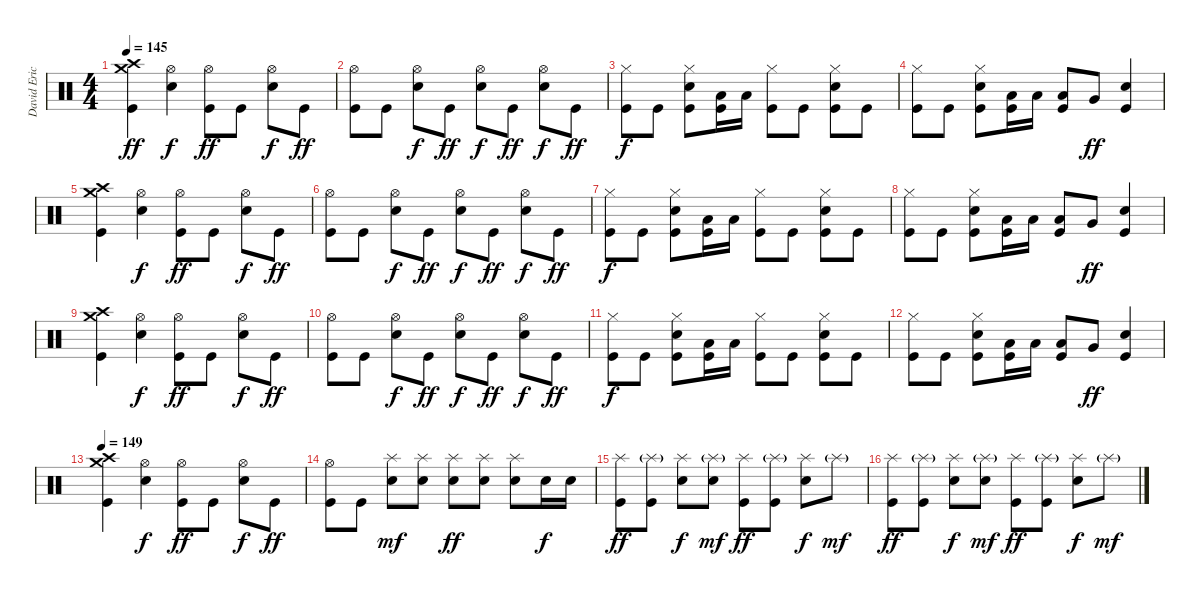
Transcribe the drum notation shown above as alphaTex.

\track ("David Eric Grohl" "David Eric") {instrument percussion}
\staff {score}
\articulation defaults
\ts (4 4)
\tempo 145
\clef neutral
\ks c
("Crash medium (hit)" "Crash high (hit)" "Kick (hit)").4{dy ff} ("Hi-Hat (open)" "Snare (hit) 2").4{dy f} ("Hi-Hat (open)" "Kick (hit)").8{dy ff} "Kick (hit)".8 ("Hi-Hat (open)" "Snare (hit) 2").8{dy f} "Kick (hit)".8{dy ff} |
("Hi-Hat (open)" "Kick (hit)").8 "Kick (hit)".8 ("Hi-Hat (open)" "Snare (hit) 2").8{dy f} "Kick (hit)".8{dy ff} ("Hi-Hat (open)" "Snare (hit) 2").8{dy f} "Kick (hit)".8{dy ff} ("Hi-Hat (open)" "Snare (hit) 2").8{dy f} "Kick (hit)".8{dy ff} |
("Hi-Hat (closed)" "Kick (hit)").8{dy f} "Kick (hit)".8 ("Snare (hit) 2" "Hi-Hat (closed)" "Kick (hit)").8 ("Low Tom (hit)" "Kick (hit)").16 "Low Tom (hit)".16 ("Hi-Hat (closed)" "Kick (hit)").8 "Kick (hit)".8 ("Snare (hit) 2" "Hi-Hat (closed)" "Kick (hit)").8 "Kick (hit)".8 |
("Hi-Hat (closed)" "Kick (hit)").8 "Kick (hit)".8 ("Snare (hit) 2" "Hi-Hat (closed)" "Kick (hit)").8 ("Low Tom (hit)" "Kick (hit)").16 "Low Tom (hit)".16 ("Low Tom (hit)" "Kick (hit)").8 "Very Low Tom (hit)".8{dy ff} ("Snare (hit) 2" "Kick (hit)").4 |
("Crash medium (hit)" "Crash high (hit)" "Kick (hit)").4 ("Hi-Hat (open)" "Snare (hit) 2").4{dy f} ("Hi-Hat (open)" "Kick (hit)").8{dy ff} "Kick (hit)".8 ("Hi-Hat (open)" "Snare (hit) 2").8{dy f} "Kick (hit)".8{dy ff} |
("Hi-Hat (open)" "Kick (hit)").8 "Kick (hit)".8 ("Hi-Hat (open)" "Snare (hit) 2").8{dy f} "Kick (hit)".8{dy ff} ("Hi-Hat (open)" "Snare (hit) 2").8{dy f} "Kick (hit)".8{dy ff} ("Hi-Hat (open)" "Snare (hit) 2").8{dy f} "Kick (hit)".8{dy ff} |
("Hi-Hat (closed)" "Kick (hit)").8{dy f} "Kick (hit)".8 ("Snare (hit) 2" "Hi-Hat (closed)" "Kick (hit)").8 ("Low Tom (hit)" "Kick (hit)").16 "Low Tom (hit)".16 ("Hi-Hat (closed)" "Kick (hit)").8 "Kick (hit)".8 ("Snare (hit) 2" "Hi-Hat (closed)" "Kick (hit)").8 "Kick (hit)".8 |
("Hi-Hat (closed)" "Kick (hit)").8 "Kick (hit)".8 ("Snare (hit) 2" "Hi-Hat (closed)" "Kick (hit)").8 ("Low Tom (hit)" "Kick (hit)").16 "Low Tom (hit)".16 ("Low Tom (hit)" "Kick (hit)").8 "Very Low Tom (hit)".8{dy ff} ("Snare (hit) 2" "Kick (hit)").4 |
("Crash medium (hit)" "Crash high (hit)" "Kick (hit)").4 ("Hi-Hat (open)" "Snare (hit) 2").4{dy f} ("Hi-Hat (open)" "Kick (hit)").8{dy ff} "Kick (hit)".8 ("Hi-Hat (open)" "Snare (hit) 2").8{dy f} "Kick (hit)".8{dy ff} |
("Hi-Hat (open)" "Kick (hit)").8 "Kick (hit)".8 ("Hi-Hat (open)" "Snare (hit) 2").8{dy f} "Kick (hit)".8{dy ff} ("Hi-Hat (open)" "Snare (hit) 2").8{dy f} "Kick (hit)".8{dy ff} ("Hi-Hat (open)" "Snare (hit) 2").8{dy f} "Kick (hit)".8{dy ff} |
("Hi-Hat (closed)" "Kick (hit)").8{dy f} "Kick (hit)".8 ("Snare (hit) 2" "Hi-Hat (closed)" "Kick (hit)").8 ("Low Tom (hit)" "Kick (hit)").16 "Low Tom (hit)".16 ("Hi-Hat (closed)" "Kick (hit)").8 "Kick (hit)".8 ("Snare (hit) 2" "Hi-Hat (closed)" "Kick (hit)").8 "Kick (hit)".8 |
("Hi-Hat (closed)" "Kick (hit)").8 "Kick (hit)".8 ("Snare (hit) 2" "Hi-Hat (closed)" "Kick (hit)").8 ("Low Tom (hit)" "Kick (hit)").16 "Low Tom (hit)".16 ("Low Tom (hit)" "Kick (hit)").8 "Very Low Tom (hit)".8{dy ff} ("Snare (hit) 2" "Kick (hit)").4 |
\tempo 149
("Crash medium (hit)" "Crash high (hit)" "Kick (hit)").4 ("Hi-Hat (open)" "Snare (hit) 2").4{dy f} ("Hi-Hat (open)" "Kick (hit)").8{dy ff} "Kick (hit)".8 ("Hi-Hat (open)" "Snare (hit) 2").8{dy f} "Kick (hit)".8{dy ff} |
("Hi-Hat (open)" "Kick (hit)").8 "Kick (hit)".8 ("Splash (hit)" "Snare (hit) 2").8{dy mf} ("Splash (hit)" "Snare (hit) 2").8 ("Splash (hit)" "Snare (hit) 2").8{dy ff} ("Splash (hit)" "Snare (hit) 2").8 ("Splash (hit)" "Snare (hit) 2").8 "Snare (hit) 2".16{dy f} "Snare (hit) 2".16 |
("Splash (hit)" "Kick (hit)").8{dy ff} ("Splash (hit)"{g} "Kick (hit)").8 ("Splash (hit)" "Snare (hit) 2").8{dy f} ("Splash (hit)"{g} "Snare (hit) 2").8{dy mf} ("Splash (hit)" "Kick (hit)").8{dy ff} ("Splash (hit)"{g} "Kick (hit)").8 ("Splash (hit)" "Snare (hit) 2").8{dy f} "Splash (hit)"{g}.8{dy mf} |
("Splash (hit)" "Kick (hit)").8{dy ff} ("Splash (hit)"{g} "Kick (hit)").8 ("Splash (hit)" "Snare (hit) 2").8{dy f} ("Splash (hit)"{g} "Snare (hit) 2").8{dy mf} ("Splash (hit)" "Kick (hit)").8{dy ff} ("Splash (hit)"{g} "Kick (hit)").8 ("Splash (hit)" "Snare (hit) 2").8{dy f} "Splash (hit)"{g}.8{dy mf}
